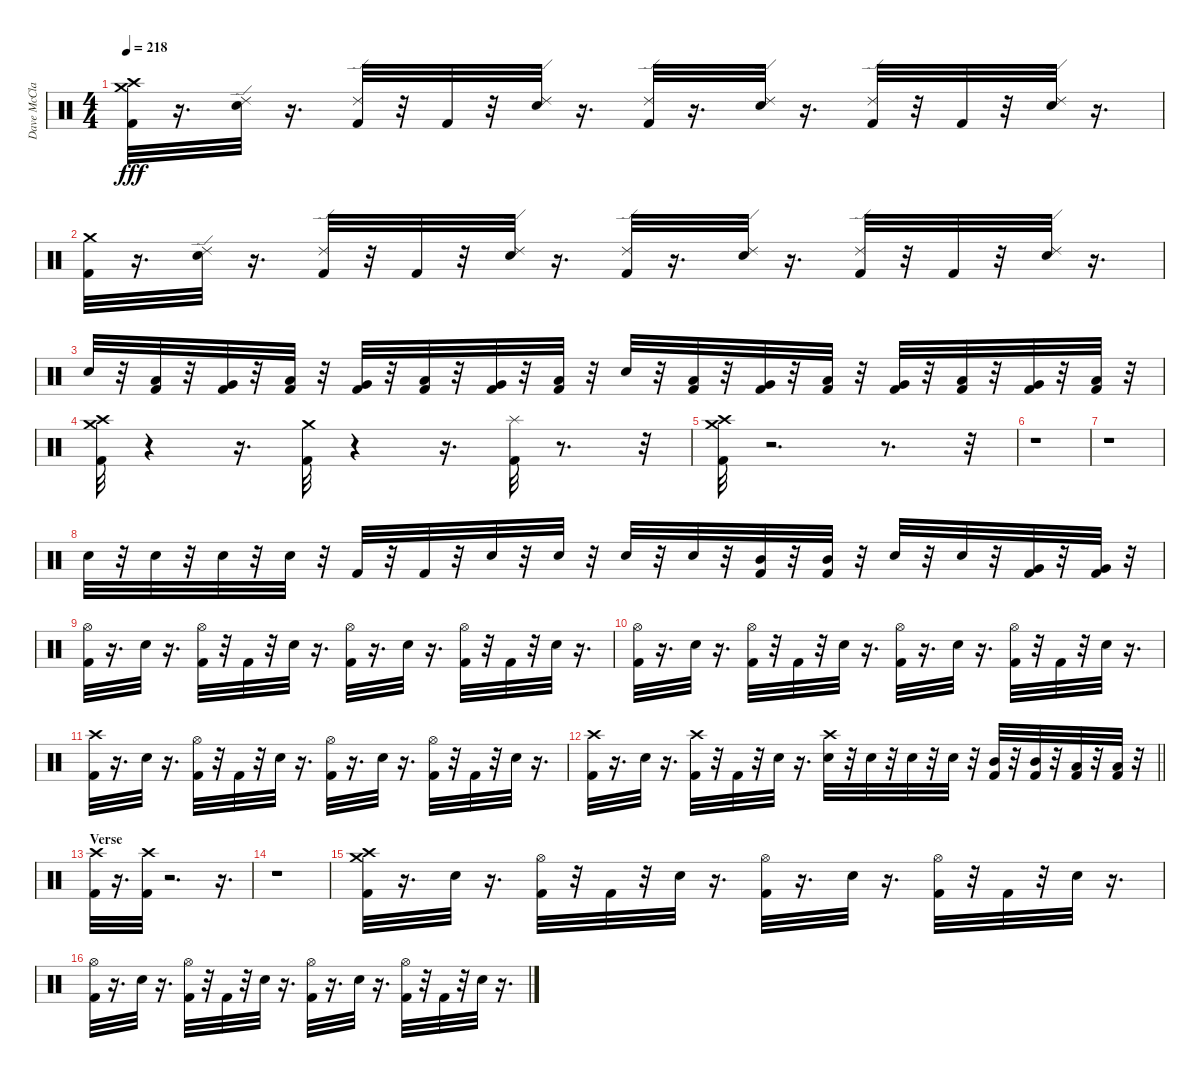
\track ("Dave McClain" "Dave McCla") {instrument percussion}
\staff {score}
\articulation defaults
\ts (4 4)
\tempo 218
\clef neutral
\ks c
("Kick (hit) 2" "Crash high (hit)" "Crash medium (hit)").32{dy fff} r.16{d} ("Snare (hit) 2" "Ride (edge) 2").32 r.16{d} ("Kick (hit) 2" "Ride (edge) 2").32 r.32 "Kick (hit) 2".32 r.32 ("Snare (hit) 2" "Ride (edge) 2").32 r.16{d} ("Kick (hit) 2" "Ride (edge) 2").32 r.16{d} ("Snare (hit) 2" "Ride (edge) 2").32 r.16{d} ("Kick (hit) 2" "Ride (edge) 2").32 r.32 "Kick (hit) 2".32 r.32 ("Snare (hit) 2" "Ride (edge) 2").32 r.16{d} |
("Kick (hit) 2" "Crash medium (hit)").32 r.16{d} ("Snare (hit) 2" "Ride (edge) 2").32 r.16{d} ("Kick (hit) 2" "Ride (edge) 2").32 r.32 "Kick (hit) 2".32 r.32 ("Snare (hit) 2" "Ride (edge) 2").32 r.16{d} ("Kick (hit) 2" "Ride (edge) 2").32 r.16{d} ("Snare (hit) 2" "Ride (edge) 2").32 r.16{d} ("Kick (hit) 2" "Ride (edge) 2").32 r.32 "Kick (hit) 2".32 r.32 ("Snare (hit) 2" "Ride (edge) 2").32 r.16{d} |
"Snare (hit) 2".32 r.32 ("Kick (hit) 2" "Low Tom (hit)").32 r.32 ("Kick (hit) 2" "Very Low Tom (hit)").32 r.32 ("Kick (hit) 2" "Low Tom (hit)").32 r.32 ("Kick (hit) 2" "Very Low Tom (hit)").32 r.32 ("Kick (hit) 2" "Low Tom (hit)").32 r.32 ("Kick (hit) 2" "Very Low Tom (hit)").32 r.32 ("Kick (hit) 2" "Low Tom (hit)").32 r.32 "Snare (hit) 2".32 r.32 ("Kick (hit) 2" "Low Tom (hit)").32 r.32 ("Kick (hit) 2" "Very Low Tom (hit)").32 r.32 ("Kick (hit) 2" "Low Tom (hit)").32 r.32 ("Kick (hit) 2" "Very Low Tom (hit)").32 r.32 ("Kick (hit) 2" "Low Tom (hit)").32 r.32 ("Kick (hit) 2" "Very Low Tom (hit)").32 r.32 ("Kick (hit) 2" "Low Tom (hit)").32 r.32 |
("Kick (hit) 2" "Crash high (hit)" "Crash medium (hit)").32 r.4 r.16{d} ("Kick (hit) 2" "Crash medium (hit)").32 r.4 r.16{d} ("Kick (hit) 2" "Splash (hit)").32 r.8{d} r.32 |
("Crash medium (hit)" "Crash high (hit)" "Kick (hit) 2").32 r.2{d} r.8{d} r.32 |
r.1 |
r.1 |
"Snare (hit) 2".32 r.32 "Snare (hit) 2".32 r.32 "Snare (hit) 2".32 r.32 "Snare (hit) 2".32 r.32 "Kick (hit) 2".32 r.32 "Kick (hit) 2".32 r.32 "Snare (hit) 2".32 r.32 "Snare (hit) 2".32 r.32 "Snare (hit) 2".32 r.32 "Snare (hit) 2".32 r.32 ("Kick (hit) 2" "Mid Tom (hit)").32 r.32 ("Kick (hit) 2" "Mid Tom (hit)").32 r.32 "Snare (hit) 2".32 r.32 "Snare (hit) 2".32 r.32 ("Kick (hit) 2" "Very Low Tom (hit)").32 r.32 ("Kick (hit) 2" "Very Low Tom (hit)").32 r.32 |
("Hi-Hat (open)" "Kick (hit) 2").32 r.16{d} "Snare (hit) 2".32 r.16{d} ("Kick (hit) 2" "Hi-Hat (open)").32 r.32 "Kick (hit) 2".32 r.32 "Snare (hit) 2".32 r.16{d} ("Hi-Hat (open)" "Kick (hit) 2").32 r.16{d} "Snare (hit) 2".32 r.16{d} ("Hi-Hat (open)" "Kick (hit) 2").32 r.32 "Kick (hit) 2".32 r.32 "Snare (hit) 2".32 r.16{d} |
("Hi-Hat (open)" "Kick (hit) 2").32 r.16{d} "Snare (hit) 2".32 r.16{d} ("Hi-Hat (open)" "Kick (hit) 2").32 r.32 "Kick (hit) 2".32 r.32 "Snare (hit) 2".32 r.16{d} ("Hi-Hat (open)" "Kick (hit) 2").32 r.16{d} "Snare (hit) 2".32 r.16{d} ("Hi-Hat (open)" "Kick (hit) 2").32 r.32 "Kick (hit) 2".32 r.32 "Snare (hit) 2".32 r.16{d} |
("Crash high (hit)" "Kick (hit) 2").32 r.16{d} "Snare (hit) 2".32 r.16{d} ("Hi-Hat (open)" "Kick (hit) 2").32 r.32 "Kick (hit) 2".32 r.32 "Snare (hit) 2".32 r.16{d} ("Hi-Hat (open)" "Kick (hit) 2").32 r.16{d} "Snare (hit) 2".32 r.16{d} ("Hi-Hat (open)" "Kick (hit) 2").32 r.32 "Kick (hit) 2".32 r.32 "Snare (hit) 2".32 r.16{d} |
\barLineRight lightlight
("Crash high (hit)" "Kick (hit) 2").32 r.16{d} "Snare (hit) 2".32 r.16{d} ("Crash high (hit)" "Kick (hit) 2").32 r.32 "Kick (hit) 2".32 r.32 "Snare (hit) 2".32 r.16{d} ("Crash high (hit)" "Snare (hit) 2").32 r.32 "Snare (hit) 2".32 r.32 "Snare (hit) 2".32 r.32 "Snare (hit) 2".32 r.32 ("Mid Tom (hit)" "Kick (hit) 2").32 r.32 ("Mid Tom (hit)" "Kick (hit) 2").32 r.32 ("Low Tom (hit)" "Kick (hit) 2").32 r.32 ("Low Tom (hit)" "Kick (hit) 2").32 r.32 |
\section ("" "Verse")
("Crash high (hit)" "Kick (hit) 2").32 r.16{d} ("Crash high (hit)" "Kick (hit) 2").32 r.2{d} r.16{d} |
r.1 |
("Crash medium (hit)" "Crash high (hit)" "Kick (hit) 2").32 r.16{d} "Snare (hit) 2".32 r.16{d} ("Kick (hit) 2" "Hi-Hat (open)").32 r.32 "Kick (hit) 2".32 r.32 "Snare (hit) 2".32 r.16{d} ("Hi-Hat (open)" "Kick (hit) 2").32 r.16{d} "Snare (hit) 2".32 r.16{d} ("Hi-Hat (open)" "Kick (hit) 2").32 r.32 "Kick (hit) 2".32 r.32 "Snare (hit) 2".32 r.16{d} |
("Hi-Hat (open)" "Kick (hit) 2").32 r.16{d} "Snare (hit) 2".32 r.16{d} ("Hi-Hat (open)" "Kick (hit) 2").32 r.32 "Kick (hit) 2".32 r.32 "Snare (hit) 2".32 r.16{d} ("Hi-Hat (open)" "Kick (hit) 2").32 r.16{d} "Snare (hit) 2".32 r.16{d} ("Hi-Hat (open)" "Kick (hit) 2").32 r.32 "Kick (hit) 2".32 r.32 "Snare (hit) 2".32 r.16{d}
